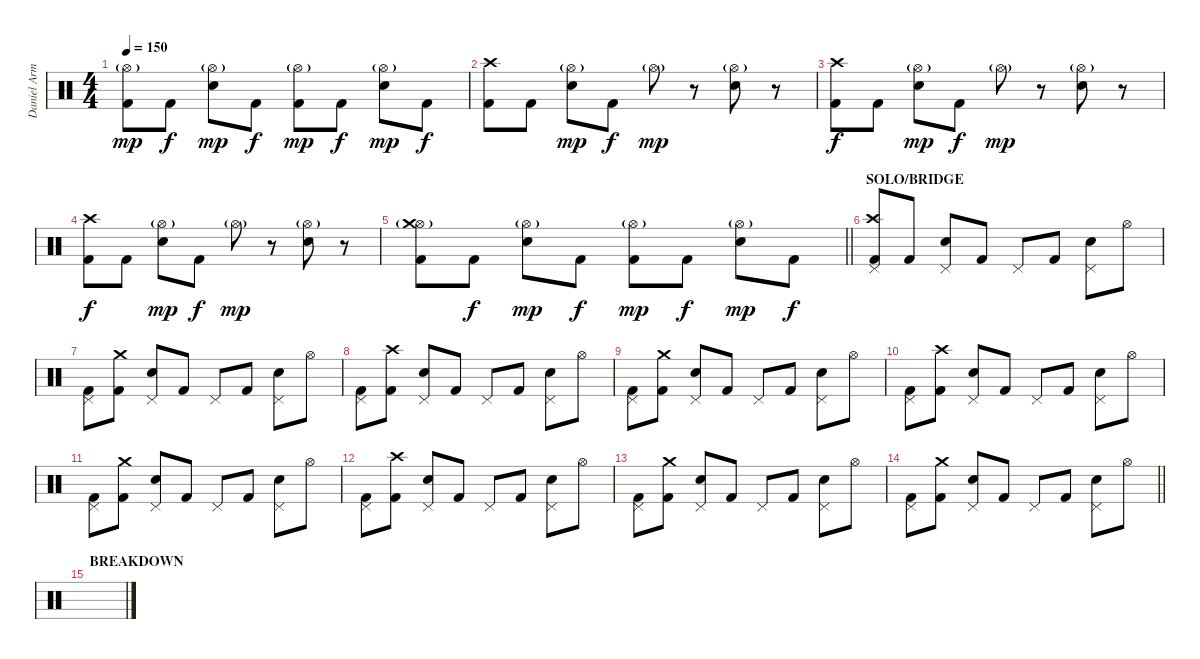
\track ("Daniel Armstrong" "Daniel Arm") {instrument percussion}
\staff {score}
\articulation defaults
\ts (4 4)
\tempo 150
\clef neutral
\ks c
("Hi-Hat (open)"{g} "Kick (hit) 2").8{dy mp} "Kick (hit) 2".8{dy f} ("Hi-Hat (open)"{g} "Electric Snare (hit)").8{dy mp} "Kick (hit) 2".8{dy f} ("Hi-Hat (open)"{g} "Kick (hit) 2").8{dy mp} "Kick (hit) 2".8{dy f} ("Hi-Hat (open)"{g} "Electric Snare (hit)").8{dy mp} "Kick (hit) 2".8{dy f} |
("Crash high (hit)" "Kick (hit) 2").8 "Kick (hit) 2".8 ("Hi-Hat (open)"{g} "Electric Snare (hit)").8{dy mp} "Kick (hit) 2".8{dy f} "Hi-Hat (open)"{g}.8{dy mp} r.8 ("Hi-Hat (open)"{g} "Electric Snare (hit)").8 r.8 |
("Crash high (hit)" "Kick (hit) 2").8{dy f} "Kick (hit) 2".8 ("Hi-Hat (open)"{g} "Electric Snare (hit)").8{dy mp} "Kick (hit) 2".8{dy f} "Hi-Hat (open)"{g}.8{dy mp} r.8 ("Hi-Hat (open)"{g} "Electric Snare (hit)").8 r.8 |
("Crash high (hit)" "Kick (hit) 2").8{dy f} "Kick (hit) 2".8 ("Hi-Hat (open)"{g} "Electric Snare (hit)").8{dy mp} "Kick (hit) 2".8{dy f} "Hi-Hat (open)"{g}.8{dy mp} r.8 ("Hi-Hat (open)"{g} "Electric Snare (hit)").8 r.8 |
\barLineRight lightlight
("Hi-Hat (open)"{g} "Crash medium (hit)" "Kick (hit) 2").8 "Kick (hit) 2".8{dy f} ("Hi-Hat (open)"{g} "Electric Snare (hit)").8{dy mp} "Kick (hit) 2".8{dy f} ("Hi-Hat (open)"{g} "Kick (hit) 2").8{dy mp} "Kick (hit) 2".8{dy f} ("Hi-Hat (open)"{g} "Electric Snare (hit)").8{dy mp} "Kick (hit) 2".8{dy f} |
\section ("" "SOLO/BRIDGE")
("Pedal Hi-Hat (hit)" "Crash high (hit)" "Kick (hit) 2").8 "Kick (hit) 2".8 ("Pedal Hi-Hat (hit)" "Electric Snare (hit)").8 "Kick (hit) 2".8 "Pedal Hi-Hat (hit)".8 "Kick (hit) 2".8 ("Pedal Hi-Hat (hit)" "Electric Snare (hit)").8 "Hi-Hat (open)".8 |
("Pedal Hi-Hat (hit)" "Kick (hit) 2").8 ("Crash medium (hit)" "Kick (hit) 2").8 ("Pedal Hi-Hat (hit)" "Electric Snare (hit)").8 "Kick (hit) 2".8 "Pedal Hi-Hat (hit)".8 "Kick (hit) 2".8 ("Pedal Hi-Hat (hit)" "Electric Snare (hit)").8 "Hi-Hat (open)".8 |
("Pedal Hi-Hat (hit)" "Kick (hit) 2").8 ("Crash high (hit)" "Kick (hit) 2").8 ("Pedal Hi-Hat (hit)" "Electric Snare (hit)").8 "Kick (hit) 2".8 "Pedal Hi-Hat (hit)".8 "Kick (hit) 2".8 ("Pedal Hi-Hat (hit)" "Electric Snare (hit)").8 "Hi-Hat (open)".8 |
("Pedal Hi-Hat (hit)" "Kick (hit) 2").8 ("Crash medium (hit)" "Kick (hit) 2").8 ("Pedal Hi-Hat (hit)" "Electric Snare (hit)").8 "Kick (hit) 2".8 "Pedal Hi-Hat (hit)".8 "Kick (hit) 2".8 ("Pedal Hi-Hat (hit)" "Electric Snare (hit)").8 "Hi-Hat (open)".8 |
("Pedal Hi-Hat (hit)" "Kick (hit) 2").8 ("Crash high (hit)" "Kick (hit) 2").8 ("Pedal Hi-Hat (hit)" "Electric Snare (hit)").8 "Kick (hit) 2".8 "Pedal Hi-Hat (hit)".8 "Kick (hit) 2".8 ("Pedal Hi-Hat (hit)" "Electric Snare (hit)").8 "Hi-Hat (open)".8 |
("Pedal Hi-Hat (hit)" "Kick (hit) 2").8 ("Crash medium (hit)" "Kick (hit) 2").8 ("Pedal Hi-Hat (hit)" "Electric Snare (hit)").8 "Kick (hit) 2".8 "Pedal Hi-Hat (hit)".8 "Kick (hit) 2".8 ("Pedal Hi-Hat (hit)" "Electric Snare (hit)").8 "Hi-Hat (open)".8 |
("Pedal Hi-Hat (hit)" "Kick (hit) 2").8 ("Crash high (hit)" "Kick (hit) 2").8 ("Pedal Hi-Hat (hit)" "Electric Snare (hit)").8 "Kick (hit) 2".8 "Pedal Hi-Hat (hit)".8 "Kick (hit) 2".8 ("Pedal Hi-Hat (hit)" "Electric Snare (hit)").8 "Hi-Hat (open)".8 |
("Pedal Hi-Hat (hit)" "Kick (hit) 2").8 ("Crash medium (hit)" "Kick (hit) 2").8 ("Pedal Hi-Hat (hit)" "Electric Snare (hit)").8 "Kick (hit) 2".8 "Pedal Hi-Hat (hit)".8 "Kick (hit) 2".8 ("Pedal Hi-Hat (hit)" "Electric Snare (hit)").8 "Hi-Hat (open)".8 |
\barLineRight lightlight
("Pedal Hi-Hat (hit)" "Kick (hit) 2").8 ("Crash medium (hit)" "Kick (hit) 2").8 ("Pedal Hi-Hat (hit)" "Electric Snare (hit)").8 "Kick (hit) 2".8 "Pedal Hi-Hat (hit)".8 "Kick (hit) 2".8 ("Pedal Hi-Hat (hit)" "Electric Snare (hit)").8 "Hi-Hat (open)".8 |
\section ("" "BREAKDOWN")
